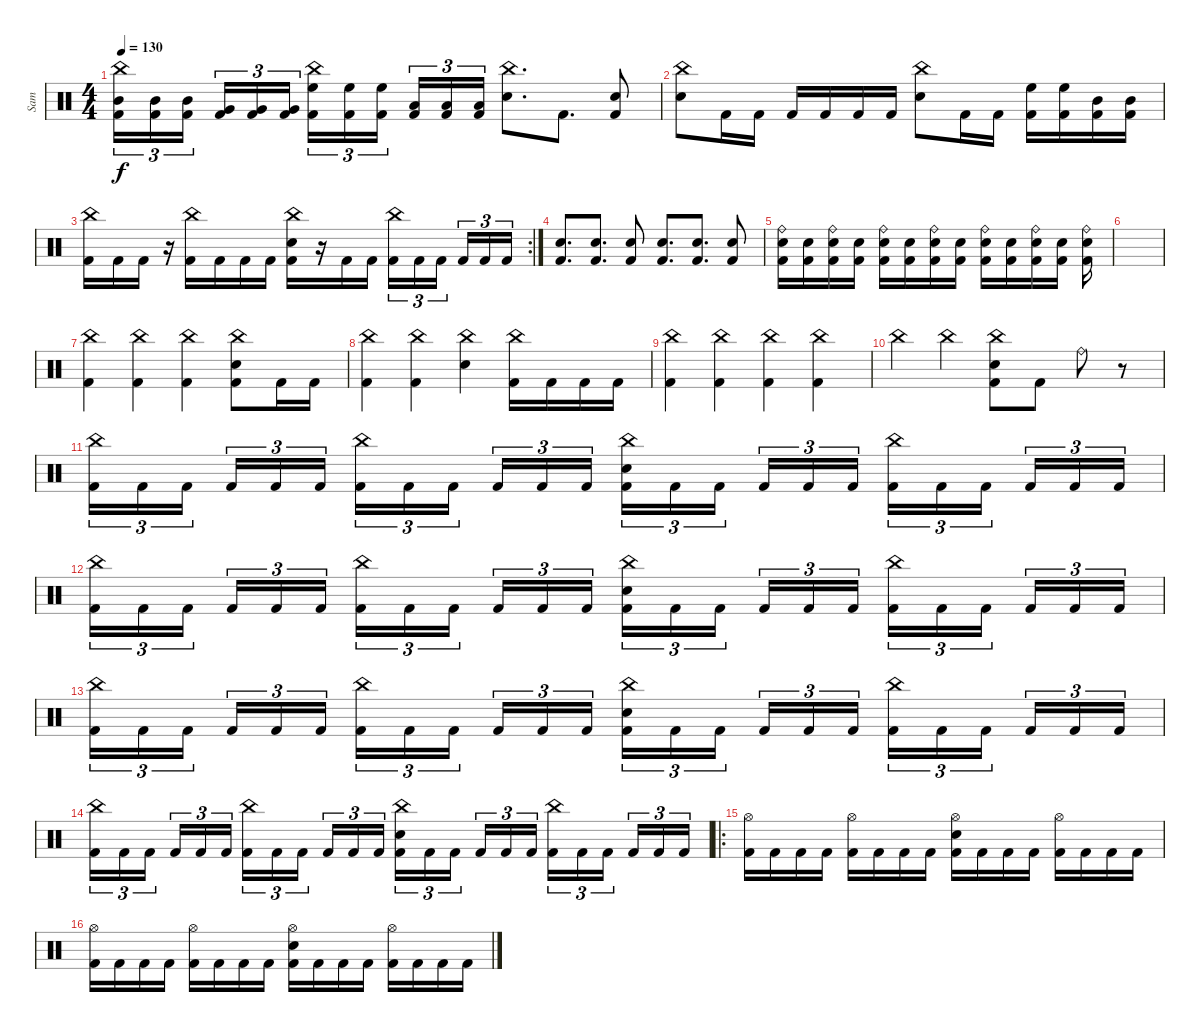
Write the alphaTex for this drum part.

\track ("Sam" "Sam") {instrument percussion}
\staff {score}
\articulation defaults
\ts (4 4)
\tempo 130
\clef neutral
\ks c
("China (hit)" "Mid Tom (hit)" "Kick (hit) 2").16{tu (3 2) dy f} ("Mid Tom (hit)" "Kick (hit) 2").16{tu (3 2)} ("Mid Tom (hit)" "Kick (hit) 2").16{tu (3 2) beam splitsecondary} ("Very Low Tom (hit)" "Kick (hit) 2").16{tu (3 2)} ("Very Low Tom (hit)" "Kick (hit) 2").16{tu (3 2)} ("Very Low Tom (hit)" "Kick (hit) 2").16{tu (3 2)} ("China (hit)" "High Floor Tom (hit)" "Kick (hit) 2").16{tu (3 2)} ("High Floor Tom (hit)" "Kick (hit) 2").16{tu (3 2)} ("High Floor Tom (hit)" "Kick (hit) 2").16{tu (3 2) beam splitsecondary} ("Low Floor Tom (hit)" "Kick (hit) 2").16{tu (3 2)} ("Low Floor Tom (hit)" "Kick (hit) 2").16{tu (3 2)} ("Low Floor Tom (hit)" "Kick (hit) 2").16{tu (3 2)} ("China (hit)" "Snare (hit) 2").8{d} "Kick (hit) 2".8{d} ("Snare (hit) 2" "Kick (hit) 2").8 |
("China (hit)" "Snare (hit) 2").8 "Kick (hit) 2".16 "Kick (hit) 2".16 "Kick (hit) 2".16 "Kick (hit) 2".16 "Kick (hit) 2".16 "Kick (hit) 2".16 ("China (hit)" "Snare (hit) 2").8 "Kick (hit) 2".16 "Kick (hit) 2".16 ("High Floor Tom (hit)" "Kick (hit) 2").16 ("High Floor Tom (hit)" "Kick (hit) 2").16 ("Mid Tom (hit)" "Kick (hit) 2").16 ("Mid Tom (hit)" "Kick (hit) 2").16 |
\rc 2
("China (hit)" "Kick (hit) 2").16 "Kick (hit) 2".16 "Kick (hit) 2".16 r.16 ("China (hit)" "Kick (hit) 2").16 "Kick (hit) 2".16 "Kick (hit) 2".16 "Kick (hit) 2".16 ("China (hit)" "Snare (hit) 2" "Kick (hit) 2").16 r.16 "Kick (hit) 2".16 "Kick (hit) 2".16 ("China (hit)" "Kick (hit) 2").16{tu (3 2)} "Kick (hit) 2".16{tu (3 2)} "Kick (hit) 2".16{tu (3 2) beam splitsecondary} "Kick (hit) 2".16{tu (3 2)} "Kick (hit) 2".16{tu (3 2)} "Kick (hit) 2".16{tu (3 2)} |
("Snare (hit) 2" "Kick (hit) 2").8{d} ("Snare (hit) 2" "Kick (hit) 2").8{d} ("Snare (hit) 2" "Kick (hit) 2").8 ("Snare (hit) 2" "Kick (hit) 2").8{d} ("Snare (hit) 2" "Kick (hit) 2").8{d} ("Snare (hit) 2" "Kick (hit) 2").8 |
("Ride (bell)" "Snare (hit) 2" "Kick (hit) 2").16 ("Snare (hit) 2" "Kick (hit) 2").16 ("Ride (bell)" "Snare (hit) 2" "Kick (hit) 2").16 ("Snare (hit) 2" "Kick (hit) 2").16 ("Ride (bell)" "Snare (hit) 2" "Kick (hit) 2").16 ("Snare (hit) 2" "Kick (hit) 2").16 ("Ride (bell)" "Snare (hit) 2" "Kick (hit) 2").16 ("Snare (hit) 2" "Kick (hit) 2").16 ("Ride (bell)" "Snare (hit) 2" "Kick (hit) 2").16 ("Snare (hit) 2" "Kick (hit) 2").16 ("Ride (bell)" "Snare (hit) 2" "Kick (hit) 2").16 ("Snare (hit) 2" "Kick (hit) 2").16 ("Ride (bell)" "Snare (hit) 2" "Kick (hit) 2").16 |
|
("China (hit)" "Kick (hit) 2").4 ("China (hit)" "Kick (hit) 2").4 ("China (hit)" "Kick (hit) 2").4 ("China (hit)" "Snare (hit) 2" "Kick (hit) 2").8 "Kick (hit) 2".16 "Kick (hit) 2".16 |
("China (hit)" "Kick (hit) 2").4 ("China (hit)" "Kick (hit) 2").4 ("China (hit)" "Snare (hit) 2").4 ("China (hit)" "Kick (hit) 2").16 "Kick (hit) 2".16 "Kick (hit) 2".16 "Kick (hit) 2".16 |
("China (hit)" "Kick (hit) 2").4 ("China (hit)" "Kick (hit) 2").4 ("China (hit)" "Kick (hit) 2").4 ("China (hit)" "Kick (hit) 2").4 |
"China (hit)".4 "China (hit)".4 ("China (hit)" "Snare (hit) 2" "Kick (hit) 2").8 "Kick (hit) 2".8 "Ride (bell)".8 r.8 |
("China (hit)" "Kick (hit) 2").16{tu (3 2)} "Kick (hit) 2".16{tu (3 2)} "Kick (hit) 2".16{tu (3 2) beam splitsecondary} "Kick (hit) 2".16{tu (3 2)} "Kick (hit) 2".16{tu (3 2)} "Kick (hit) 2".16{tu (3 2)} ("China (hit)" "Kick (hit) 2").16{tu (3 2)} "Kick (hit) 2".16{tu (3 2)} "Kick (hit) 2".16{tu (3 2) beam splitsecondary} "Kick (hit) 2".16{tu (3 2)} "Kick (hit) 2".16{tu (3 2)} "Kick (hit) 2".16{tu (3 2)} ("China (hit)" "Snare (hit) 2" "Kick (hit) 2").16{tu (3 2)} "Kick (hit) 2".16{tu (3 2)} "Kick (hit) 2".16{tu (3 2) beam splitsecondary} "Kick (hit) 2".16{tu (3 2)} "Kick (hit) 2".16{tu (3 2)} "Kick (hit) 2".16{tu (3 2)} ("China (hit)" "Kick (hit) 2").16{tu (3 2)} "Kick (hit) 2".16{tu (3 2)} "Kick (hit) 2".16{tu (3 2) beam splitsecondary} "Kick (hit) 2".16{tu (3 2)} "Kick (hit) 2".16{tu (3 2)} "Kick (hit) 2".16{tu (3 2)} |
("China (hit)" "Kick (hit) 2").16{tu (3 2)} "Kick (hit) 2".16{tu (3 2)} "Kick (hit) 2".16{tu (3 2) beam splitsecondary} "Kick (hit) 2".16{tu (3 2)} "Kick (hit) 2".16{tu (3 2)} "Kick (hit) 2".16{tu (3 2)} ("China (hit)" "Kick (hit) 2").16{tu (3 2)} "Kick (hit) 2".16{tu (3 2)} "Kick (hit) 2".16{tu (3 2) beam splitsecondary} "Kick (hit) 2".16{tu (3 2)} "Kick (hit) 2".16{tu (3 2)} "Kick (hit) 2".16{tu (3 2)} ("China (hit)" "Snare (hit) 2" "Kick (hit) 2").16{tu (3 2)} "Kick (hit) 2".16{tu (3 2)} "Kick (hit) 2".16{tu (3 2) beam splitsecondary} "Kick (hit) 2".16{tu (3 2)} "Kick (hit) 2".16{tu (3 2)} "Kick (hit) 2".16{tu (3 2)} ("China (hit)" "Kick (hit) 2").16{tu (3 2)} "Kick (hit) 2".16{tu (3 2)} "Kick (hit) 2".16{tu (3 2) beam splitsecondary} "Kick (hit) 2".16{tu (3 2)} "Kick (hit) 2".16{tu (3 2)} "Kick (hit) 2".16{tu (3 2)} |
("China (hit)" "Kick (hit) 2").16{tu (3 2)} "Kick (hit) 2".16{tu (3 2)} "Kick (hit) 2".16{tu (3 2) beam splitsecondary} "Kick (hit) 2".16{tu (3 2)} "Kick (hit) 2".16{tu (3 2)} "Kick (hit) 2".16{tu (3 2)} ("China (hit)" "Kick (hit) 2").16{tu (3 2)} "Kick (hit) 2".16{tu (3 2)} "Kick (hit) 2".16{tu (3 2) beam splitsecondary} "Kick (hit) 2".16{tu (3 2)} "Kick (hit) 2".16{tu (3 2)} "Kick (hit) 2".16{tu (3 2)} ("China (hit)" "Snare (hit) 2" "Kick (hit) 2").16{tu (3 2)} "Kick (hit) 2".16{tu (3 2)} "Kick (hit) 2".16{tu (3 2) beam splitsecondary} "Kick (hit) 2".16{tu (3 2)} "Kick (hit) 2".16{tu (3 2)} "Kick (hit) 2".16{tu (3 2)} ("China (hit)" "Kick (hit) 2").16{tu (3 2)} "Kick (hit) 2".16{tu (3 2)} "Kick (hit) 2".16{tu (3 2) beam splitsecondary} "Kick (hit) 2".16{tu (3 2)} "Kick (hit) 2".16{tu (3 2)} "Kick (hit) 2".16{tu (3 2)} |
("China (hit)" "Kick (hit) 2").16{tu (3 2)} "Kick (hit) 2".16{tu (3 2)} "Kick (hit) 2".16{tu (3 2) beam splitsecondary} "Kick (hit) 2".16{tu (3 2)} "Kick (hit) 2".16{tu (3 2)} "Kick (hit) 2".16{tu (3 2)} ("China (hit)" "Kick (hit) 2").16{tu (3 2)} "Kick (hit) 2".16{tu (3 2)} "Kick (hit) 2".16{tu (3 2) beam splitsecondary} "Kick (hit) 2".16{tu (3 2)} "Kick (hit) 2".16{tu (3 2)} "Kick (hit) 2".16{tu (3 2)} ("China (hit)" "Snare (hit) 2" "Kick (hit) 2").16{tu (3 2)} "Kick (hit) 2".16{tu (3 2)} "Kick (hit) 2".16{tu (3 2) beam splitsecondary} "Kick (hit) 2".16{tu (3 2)} "Kick (hit) 2".16{tu (3 2)} "Kick (hit) 2".16{tu (3 2)} ("China (hit)" "Kick (hit) 2").16{tu (3 2)} "Kick (hit) 2".16{tu (3 2)} "Kick (hit) 2".16{tu (3 2) beam splitsecondary} "Kick (hit) 2".16{tu (3 2)} "Kick (hit) 2".16{tu (3 2)} "Kick (hit) 2".16{tu (3 2)} |
\ro
("Hi-Hat (open)" "Kick (hit) 2").16 "Kick (hit) 2".16 "Kick (hit) 2".16 "Kick (hit) 2".16 ("Hi-Hat (open)" "Kick (hit) 2").16 "Kick (hit) 2".16 "Kick (hit) 2".16 "Kick (hit) 2".16 ("Hi-Hat (open)" "Snare (hit) 2" "Kick (hit) 2").16 "Kick (hit) 2".16 "Kick (hit) 2".16 "Kick (hit) 2".16 ("Hi-Hat (open)" "Kick (hit) 2").16 "Kick (hit) 2".16 "Kick (hit) 2".16 "Kick (hit) 2".16 |
("Hi-Hat (open)" "Kick (hit) 2").16 "Kick (hit) 2".16 "Kick (hit) 2".16 "Kick (hit) 2".16 ("Hi-Hat (open)" "Kick (hit) 2").16 "Kick (hit) 2".16 "Kick (hit) 2".16 "Kick (hit) 2".16 ("Hi-Hat (open)" "Snare (hit) 2" "Kick (hit) 2").16 "Kick (hit) 2".16 "Kick (hit) 2".16 "Kick (hit) 2".16 ("Hi-Hat (open)" "Kick (hit) 2").16 "Kick (hit) 2".16 "Kick (hit) 2".16 "Kick (hit) 2".16
